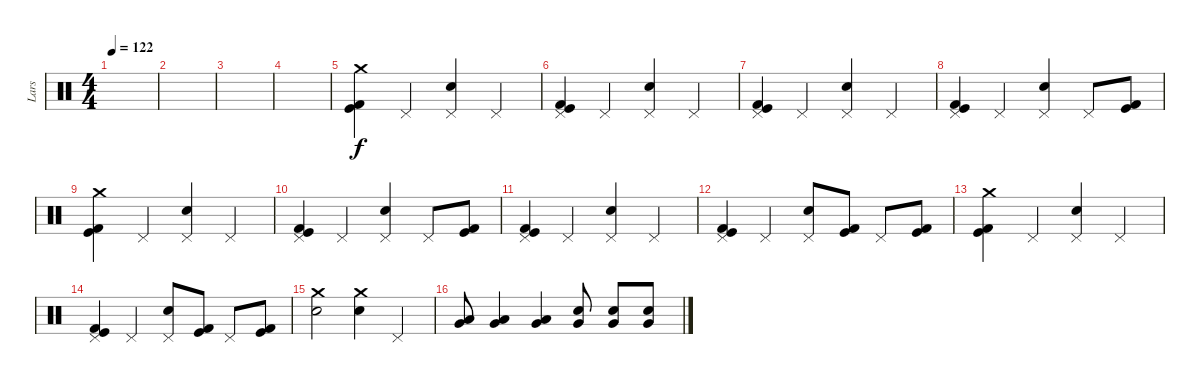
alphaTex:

\track ("Lars" "Lars") {instrument percussion}
\staff {score}
\articulation defaults
\ts (4 4)
\tempo 122
\clef neutral
\ks c
|
|
|
|
("Crash medium (hit)" "Kick (hit)" "Kick (hit) 2").4 "Pedal Hi-Hat (hit)".4 ("Pedal Hi-Hat (hit)" "Electric Snare (hit)").4 "Pedal Hi-Hat (hit)".4 |
("Pedal Hi-Hat (hit)" "Kick (hit)" "Kick (hit) 2").4 "Pedal Hi-Hat (hit)".4 ("Pedal Hi-Hat (hit)" "Electric Snare (hit)").4 "Pedal Hi-Hat (hit)".4 |
("Pedal Hi-Hat (hit)" "Kick (hit)" "Kick (hit) 2").4 "Pedal Hi-Hat (hit)".4 ("Pedal Hi-Hat (hit)" "Electric Snare (hit)").4 "Pedal Hi-Hat (hit)".4 |
("Pedal Hi-Hat (hit)" "Kick (hit)" "Kick (hit) 2").4 "Pedal Hi-Hat (hit)".4 ("Pedal Hi-Hat (hit)" "Electric Snare (hit)").4 "Pedal Hi-Hat (hit)".8 ("Kick (hit)" "Kick (hit) 2").8 |
("Crash medium (hit)" "Kick (hit)" "Kick (hit) 2").4 "Pedal Hi-Hat (hit)".4 ("Pedal Hi-Hat (hit)" "Electric Snare (hit)").4 "Pedal Hi-Hat (hit)".4 |
("Pedal Hi-Hat (hit)" "Kick (hit)" "Kick (hit) 2").4 "Pedal Hi-Hat (hit)".4 ("Pedal Hi-Hat (hit)" "Electric Snare (hit)").4 "Pedal Hi-Hat (hit)".8 ("Kick (hit)" "Kick (hit) 2").8 |
("Pedal Hi-Hat (hit)" "Kick (hit)" "Kick (hit) 2").4 "Pedal Hi-Hat (hit)".4 ("Pedal Hi-Hat (hit)" "Electric Snare (hit)").4 "Pedal Hi-Hat (hit)".4 |
("Pedal Hi-Hat (hit)" "Kick (hit)" "Kick (hit) 2").4 "Pedal Hi-Hat (hit)".4 ("Pedal Hi-Hat (hit)" "Electric Snare (hit)").8 ("Kick (hit)" "Kick (hit) 2").8 "Pedal Hi-Hat (hit)".8 ("Kick (hit)" "Kick (hit) 2").8 |
("Crash medium (hit)" "Kick (hit)" "Kick (hit) 2").4 "Pedal Hi-Hat (hit)".4 ("Pedal Hi-Hat (hit)" "Electric Snare (hit)").4 "Pedal Hi-Hat (hit)".4 |
("Pedal Hi-Hat (hit)" "Kick (hit)" "Kick (hit) 2").4 "Pedal Hi-Hat (hit)".4 ("Pedal Hi-Hat (hit)" "Electric Snare (hit)").8 ("Kick (hit)" "Kick (hit) 2").8 "Pedal Hi-Hat (hit)".8 ("Kick (hit)" "Kick (hit) 2").8 |
("Crash medium (hit)" "Electric Snare (hit)").2 ("Crash medium (hit)" "Electric Snare (hit)").4 "Pedal Hi-Hat (hit)".4 |
("Very Low Tom (hit)" "Low Tom (hit)").8 ("Very Low Tom (hit)" "Low Tom (hit)").4 ("Very Low Tom (hit)" "Low Tom (hit)").4 ("Very Low Tom (hit)" "Electric Snare (hit)").8 ("Very Low Tom (hit)" "Electric Snare (hit)").8 ("Very Low Tom (hit)" "Electric Snare (hit)").8
